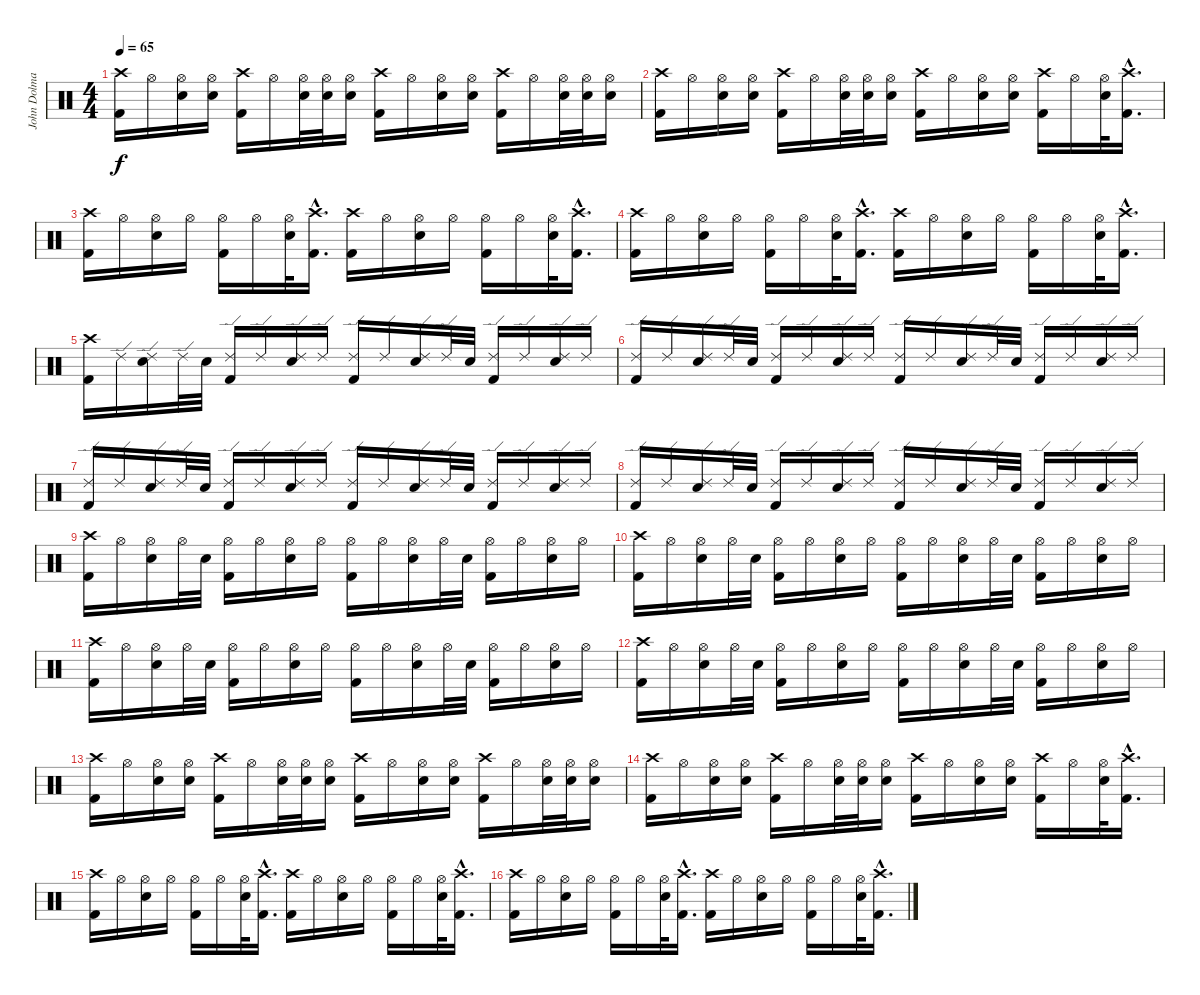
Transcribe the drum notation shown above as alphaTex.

\track ("John Dolmayan: Drums" "John Dolma") {instrument percussion}
\staff {score}
\articulation defaults
\ts (4 4)
\tempo 65
\clef neutral
\ks c
("Crash high (hit)" "Kick (hit) 2").16{dy f} "Hi-Hat (open)".16 ("Electric Snare (hit)" "Hi-Hat (open)").16 ("Electric Snare (hit)" "Hi-Hat (open)").16 ("Kick (hit) 2" "Crash high (hit)").16 "Hi-Hat (open)".16 ("Electric Snare (hit)" "Hi-Hat (open)").32 ("Electric Snare (hit)" "Hi-Hat (open)").32 ("Electric Snare (hit)" "Hi-Hat (open)").16 ("Kick (hit) 2" "Crash high (hit)").16 "Hi-Hat (open)".16 ("Electric Snare (hit)" "Hi-Hat (open)").16 ("Electric Snare (hit)" "Hi-Hat (open)").16 ("Kick (hit) 2" "Crash high (hit)").16 "Hi-Hat (open)".16 ("Electric Snare (hit)" "Hi-Hat (open)").32 ("Electric Snare (hit)" "Hi-Hat (open)").32 ("Electric Snare (hit)" "Hi-Hat (open)").16 |
("Crash high (hit)" "Kick (hit) 2").16 "Hi-Hat (open)".16 ("Electric Snare (hit)" "Hi-Hat (open)").16 ("Electric Snare (hit)" "Hi-Hat (open)").16 ("Kick (hit) 2" "Crash high (hit)").16 "Hi-Hat (open)".16 ("Electric Snare (hit)" "Hi-Hat (open)").32 ("Electric Snare (hit)" "Hi-Hat (open)").32 ("Electric Snare (hit)" "Hi-Hat (open)").16 ("Kick (hit) 2" "Crash high (hit)").16 "Hi-Hat (open)".16 ("Electric Snare (hit)" "Hi-Hat (open)").16 ("Electric Snare (hit)" "Hi-Hat (open)").16 ("Kick (hit) 2" "Crash high (hit)").16 "Hi-Hat (open)".16 ("Electric Snare (hit)" "Hi-Hat (open)").32 ("Kick (hit) 2"{hac} "Crash high (hit)"{hac}).16{d} |
("Kick (hit) 2" "Crash high (hit)").16 "Hi-Hat (open)".16 ("Electric Snare (hit)" "Hi-Hat (open)").16 "Hi-Hat (open)".16 ("Kick (hit) 2" "Hi-Hat (open)").16 "Hi-Hat (open)".16 ("Electric Snare (hit)" "Hi-Hat (open)").32 ("Kick (hit) 2"{hac} "Crash high (hit)"{hac}).16{d} ("Kick (hit) 2" "Crash high (hit)").16 "Hi-Hat (open)".16 ("Electric Snare (hit)" "Hi-Hat (open)").16 "Hi-Hat (open)".16 ("Kick (hit) 2" "Hi-Hat (open)").16 "Hi-Hat (open)".16 ("Electric Snare (hit)" "Hi-Hat (open)").32 ("Kick (hit) 2"{hac} "Crash high (hit)"{hac}).16{d} |
("Kick (hit) 2" "Crash high (hit)").16 "Hi-Hat (open)".16 ("Electric Snare (hit)" "Hi-Hat (open)").16 "Hi-Hat (open)".16 ("Kick (hit) 2" "Hi-Hat (open)").16 "Hi-Hat (open)".16 ("Electric Snare (hit)" "Hi-Hat (open)").32 ("Kick (hit) 2"{hac} "Crash high (hit)"{hac}).16{d} ("Kick (hit) 2" "Crash high (hit)").16 "Hi-Hat (open)".16 ("Electric Snare (hit)" "Hi-Hat (open)").16 "Hi-Hat (open)".16 ("Kick (hit) 2" "Hi-Hat (open)").16 "Hi-Hat (open)".16 ("Electric Snare (hit)" "Hi-Hat (open)").32 ("Kick (hit) 2"{hac} "Crash high (hit)"{hac}).16{d} |
("Kick (hit) 2" "Crash high (hit)").16 "Ride (edge) 2".16 ("Electric Snare (hit)" "Ride (edge) 2").16 "Ride (edge) 2".32 "Electric Snare (hit)".32 ("Kick (hit) 2" "Ride (edge) 2").16 "Ride (edge) 2".16 ("Electric Snare (hit)" "Ride (edge) 2").16 "Ride (edge) 2".16 ("Kick (hit) 2" "Ride (edge) 2").16 "Ride (edge) 2".16 ("Electric Snare (hit)" "Ride (edge) 2").16 "Ride (edge) 2".32 "Electric Snare (hit)".32 ("Kick (hit) 2" "Ride (edge) 2").16 "Ride (edge) 2".16 ("Electric Snare (hit)" "Ride (edge) 2").16 "Ride (edge) 2".16 |
("Kick (hit) 2" "Ride (edge) 2").16 "Ride (edge) 2".16 ("Electric Snare (hit)" "Ride (edge) 2").16 "Ride (edge) 2".32 "Electric Snare (hit)".32 ("Kick (hit) 2" "Ride (edge) 2").16 "Ride (edge) 2".16 ("Electric Snare (hit)" "Ride (edge) 2").16 "Ride (edge) 2".16 ("Kick (hit) 2" "Ride (edge) 2").16 "Ride (edge) 2".16 ("Electric Snare (hit)" "Ride (edge) 2").16 "Ride (edge) 2".32 "Electric Snare (hit)".32 ("Kick (hit) 2" "Ride (edge) 2").16 "Ride (edge) 2".16 ("Electric Snare (hit)" "Ride (edge) 2").16 "Ride (edge) 2".16 |
("Kick (hit) 2" "Ride (edge) 2").16 "Ride (edge) 2".16 ("Electric Snare (hit)" "Ride (edge) 2").16 "Ride (edge) 2".32 "Electric Snare (hit)".32 ("Kick (hit) 2" "Ride (edge) 2").16 "Ride (edge) 2".16 ("Electric Snare (hit)" "Ride (edge) 2").16 "Ride (edge) 2".16 ("Kick (hit) 2" "Ride (edge) 2").16 "Ride (edge) 2".16 ("Electric Snare (hit)" "Ride (edge) 2").16 "Ride (edge) 2".32 "Electric Snare (hit)".32 ("Kick (hit) 2" "Ride (edge) 2").16 "Ride (edge) 2".16 ("Electric Snare (hit)" "Ride (edge) 2").16 "Ride (edge) 2".16 |
("Kick (hit) 2" "Ride (edge) 2").16 "Ride (edge) 2".16 ("Electric Snare (hit)" "Ride (edge) 2").16 "Ride (edge) 2".32 "Electric Snare (hit)".32 ("Kick (hit) 2" "Ride (edge) 2").16 "Ride (edge) 2".16 ("Electric Snare (hit)" "Ride (edge) 2").16 "Ride (edge) 2".16 ("Kick (hit) 2" "Ride (edge) 2").16 "Ride (edge) 2".16 ("Electric Snare (hit)" "Ride (edge) 2").16 "Ride (edge) 2".32 "Electric Snare (hit)".32 ("Kick (hit) 2" "Ride (edge) 2").16 "Ride (edge) 2".16 ("Electric Snare (hit)" "Ride (edge) 2").16 "Ride (edge) 2".16 |
("Kick (hit) 2" "Crash high (hit)").16 "Hi-Hat (open)".16 ("Electric Snare (hit)" "Hi-Hat (open)").16 "Hi-Hat (open)".32 "Electric Snare (hit)".32 ("Kick (hit) 2" "Hi-Hat (open)").16 "Hi-Hat (open)".16 ("Electric Snare (hit)" "Hi-Hat (open)").16 "Hi-Hat (open)".16 ("Kick (hit) 2" "Hi-Hat (open)").16 "Hi-Hat (open)".16 ("Electric Snare (hit)" "Hi-Hat (open)").16 "Hi-Hat (open)".32 "Electric Snare (hit)".32 ("Kick (hit) 2" "Hi-Hat (open)").16 "Hi-Hat (open)".16 ("Electric Snare (hit)" "Hi-Hat (open)").16 "Hi-Hat (open)".16 |
("Kick (hit) 2" "Crash high (hit)").16 "Hi-Hat (open)".16 ("Electric Snare (hit)" "Hi-Hat (open)").16 "Hi-Hat (open)".32 "Electric Snare (hit)".32 ("Kick (hit) 2" "Hi-Hat (open)").16 "Hi-Hat (open)".16 ("Electric Snare (hit)" "Hi-Hat (open)").16 "Hi-Hat (open)".16 ("Kick (hit) 2" "Hi-Hat (open)").16 "Hi-Hat (open)".16 ("Electric Snare (hit)" "Hi-Hat (open)").16 "Hi-Hat (open)".32 "Electric Snare (hit)".32 ("Kick (hit) 2" "Hi-Hat (open)").16 "Hi-Hat (open)".16 ("Electric Snare (hit)" "Hi-Hat (open)").16 "Hi-Hat (open)".16 |
("Kick (hit) 2" "Crash high (hit)").16 "Hi-Hat (open)".16 ("Electric Snare (hit)" "Hi-Hat (open)").16 "Hi-Hat (open)".32 "Electric Snare (hit)".32 ("Kick (hit) 2" "Hi-Hat (open)").16 "Hi-Hat (open)".16 ("Electric Snare (hit)" "Hi-Hat (open)").16 "Hi-Hat (open)".16 ("Kick (hit) 2" "Hi-Hat (open)").16 "Hi-Hat (open)".16 ("Electric Snare (hit)" "Hi-Hat (open)").16 "Hi-Hat (open)".32 "Electric Snare (hit)".32 ("Kick (hit) 2" "Hi-Hat (open)").16 "Hi-Hat (open)".16 ("Electric Snare (hit)" "Hi-Hat (open)").16 "Hi-Hat (open)".16 |
("Kick (hit) 2" "Crash high (hit)").16 "Hi-Hat (open)".16 ("Electric Snare (hit)" "Hi-Hat (open)").16 "Hi-Hat (open)".32 "Electric Snare (hit)".32 ("Kick (hit) 2" "Hi-Hat (open)").16 "Hi-Hat (open)".16 ("Electric Snare (hit)" "Hi-Hat (open)").16 "Hi-Hat (open)".16 ("Kick (hit) 2" "Hi-Hat (open)").16 "Hi-Hat (open)".16 ("Electric Snare (hit)" "Hi-Hat (open)").16 "Hi-Hat (open)".32 "Electric Snare (hit)".32 ("Kick (hit) 2" "Hi-Hat (open)").16 "Hi-Hat (open)".16 ("Electric Snare (hit)" "Hi-Hat (open)").16 "Hi-Hat (open)".16 |
("Crash high (hit)" "Kick (hit) 2").16 "Hi-Hat (open)".16 ("Electric Snare (hit)" "Hi-Hat (open)").16 ("Electric Snare (hit)" "Hi-Hat (open)").16 ("Kick (hit) 2" "Crash high (hit)").16 "Hi-Hat (open)".16 ("Electric Snare (hit)" "Hi-Hat (open)").32 ("Electric Snare (hit)" "Hi-Hat (open)").32 ("Electric Snare (hit)" "Hi-Hat (open)").16 ("Kick (hit) 2" "Crash high (hit)").16 "Hi-Hat (open)".16 ("Electric Snare (hit)" "Hi-Hat (open)").16 ("Electric Snare (hit)" "Hi-Hat (open)").16 ("Kick (hit) 2" "Crash high (hit)").16 "Hi-Hat (open)".16 ("Electric Snare (hit)" "Hi-Hat (open)").32 ("Electric Snare (hit)" "Hi-Hat (open)").32 ("Electric Snare (hit)" "Hi-Hat (open)").16 |
("Crash high (hit)" "Kick (hit) 2").16 "Hi-Hat (open)".16 ("Electric Snare (hit)" "Hi-Hat (open)").16 ("Electric Snare (hit)" "Hi-Hat (open)").16 ("Kick (hit) 2" "Crash high (hit)").16 "Hi-Hat (open)".16 ("Electric Snare (hit)" "Hi-Hat (open)").32 ("Electric Snare (hit)" "Hi-Hat (open)").32 ("Electric Snare (hit)" "Hi-Hat (open)").16 ("Kick (hit) 2" "Crash high (hit)").16 "Hi-Hat (open)".16 ("Electric Snare (hit)" "Hi-Hat (open)").16 ("Electric Snare (hit)" "Hi-Hat (open)").16 ("Kick (hit) 2" "Crash high (hit)").16 "Hi-Hat (open)".16 ("Electric Snare (hit)" "Hi-Hat (open)").32 ("Kick (hit) 2"{hac} "Crash high (hit)"{hac}).16{d} |
("Kick (hit) 2" "Crash high (hit)").16 "Hi-Hat (open)".16 ("Electric Snare (hit)" "Hi-Hat (open)").16 "Hi-Hat (open)".16 ("Kick (hit) 2" "Hi-Hat (open)").16 "Hi-Hat (open)".16 ("Electric Snare (hit)" "Hi-Hat (open)").32 ("Kick (hit) 2"{hac} "Crash high (hit)"{hac}).16{d} ("Kick (hit) 2" "Crash high (hit)").16 "Hi-Hat (open)".16 ("Electric Snare (hit)" "Hi-Hat (open)").16 "Hi-Hat (open)".16 ("Kick (hit) 2" "Hi-Hat (open)").16 "Hi-Hat (open)".16 ("Electric Snare (hit)" "Hi-Hat (open)").32 ("Kick (hit) 2"{hac} "Crash high (hit)"{hac}).16{d} |
("Kick (hit) 2" "Crash high (hit)").16 "Hi-Hat (open)".16 ("Electric Snare (hit)" "Hi-Hat (open)").16 "Hi-Hat (open)".16 ("Kick (hit) 2" "Hi-Hat (open)").16 "Hi-Hat (open)".16 ("Electric Snare (hit)" "Hi-Hat (open)").32 ("Kick (hit) 2"{hac} "Crash high (hit)"{hac}).16{d} ("Kick (hit) 2" "Crash high (hit)").16 "Hi-Hat (open)".16 ("Electric Snare (hit)" "Hi-Hat (open)").16 "Hi-Hat (open)".16 ("Kick (hit) 2" "Hi-Hat (open)").16 "Hi-Hat (open)".16 ("Electric Snare (hit)" "Hi-Hat (open)").32 ("Kick (hit) 2"{hac} "Crash high (hit)"{hac}).16{d}
